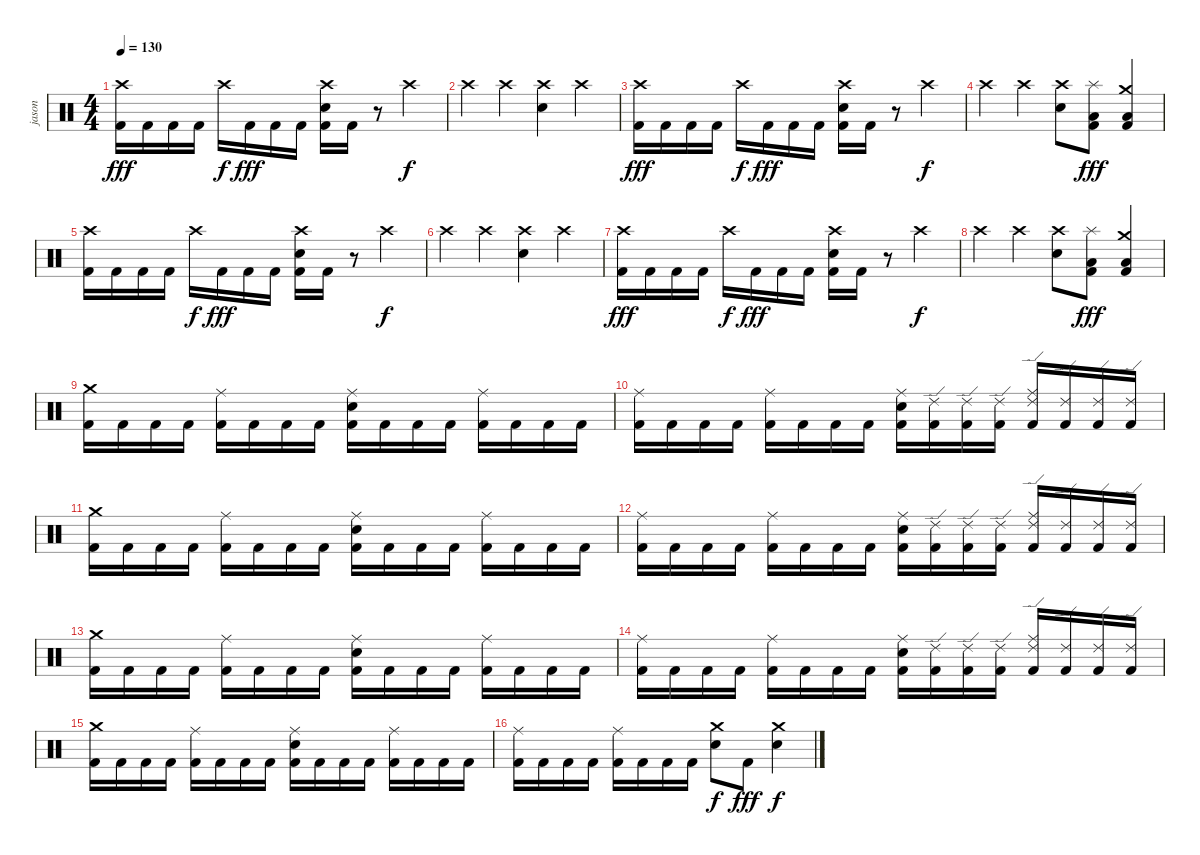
\track ("jason" "jason") {solo instrument percussion}
\staff {score}
\articulation defaults
\ts (4 4)
\tempo 130
\clef neutral
\ks c
("Crash high (hit)" "Kick (hit) 2").16{dy fff} "Kick (hit) 2".16 "Kick (hit) 2".16 "Kick (hit) 2".16 "Crash high (hit)".16{dy f} "Kick (hit) 2".16{dy fff} "Kick (hit) 2".16 "Kick (hit) 2".16 ("Crash high (hit)" "Snare (hit) 2" "Kick (hit) 2").16 "Kick (hit) 2".16 r.8 "Crash high (hit)".4{dy f} |
"Crash high (hit)".4 "Crash high (hit)".4 ("Crash high (hit)" "Snare (hit) 2").4 "Crash high (hit)".4 |
("Crash high (hit)" "Kick (hit) 2").16{dy fff} "Kick (hit) 2".16 "Kick (hit) 2".16 "Kick (hit) 2".16 "Crash high (hit)".16{dy f} "Kick (hit) 2".16{dy fff} "Kick (hit) 2".16 "Kick (hit) 2".16 ("Crash high (hit)" "Snare (hit) 2" "Kick (hit) 2").16 "Kick (hit) 2".16 r.8 "Crash high (hit)".4{dy f} |
"Crash high (hit)".4 "Crash high (hit)".4 ("Crash high (hit)" "Snare (hit) 2").8 ("Splash (hit)" "Low Tom (hit)" "Kick (hit) 2").8{dy fff} ("Crash medium (hit)" "Low Floor Tom (hit)" "Kick (hit) 2").4 |
("Crash high (hit)" "Kick (hit) 2").16 "Kick (hit) 2".16 "Kick (hit) 2".16 "Kick (hit) 2".16 "Crash high (hit)".16{dy f} "Kick (hit) 2".16{dy fff} "Kick (hit) 2".16 "Kick (hit) 2".16 ("Crash high (hit)" "Snare (hit) 2" "Kick (hit) 2").16 "Kick (hit) 2".16 r.8 "Crash high (hit)".4{dy f} |
"Crash high (hit)".4 "Crash high (hit)".4 ("Crash high (hit)" "Snare (hit) 2").4 "Crash high (hit)".4 |
("Crash high (hit)" "Kick (hit) 2").16{dy fff} "Kick (hit) 2".16 "Kick (hit) 2".16 "Kick (hit) 2".16 "Crash high (hit)".16{dy f} "Kick (hit) 2".16{dy fff} "Kick (hit) 2".16 "Kick (hit) 2".16 ("Crash high (hit)" "Snare (hit) 2" "Kick (hit) 2").16 "Kick (hit) 2".16 r.8 "Crash high (hit)".4{dy f} |
"Crash high (hit)".4 "Crash high (hit)".4 ("Crash high (hit)" "Snare (hit) 2").8 ("Splash (hit)" "Low Tom (hit)" "Kick (hit) 2").8{dy fff} ("Crash medium (hit)" "Low Floor Tom (hit)" "Kick (hit) 2").4 |
("Crash medium (hit)" "Kick (hit) 2").16 "Kick (hit) 2".16 "Kick (hit) 2".16 "Kick (hit) 2".16 ("Ride (middle)" "Kick (hit) 2").16 "Kick (hit) 2".16 "Kick (hit) 2".16 "Kick (hit) 2".16 ("Ride (middle)" "Snare (hit) 2" "Kick (hit) 2").16 "Kick (hit) 2".16 "Kick (hit) 2".16 "Kick (hit) 2".16 ("Ride (middle)" "Kick (hit) 2").16 "Kick (hit) 2".16 "Kick (hit) 2".16 "Kick (hit) 2".16 |
("Ride (middle)" "Kick (hit) 2").16 "Kick (hit) 2".16 "Kick (hit) 2".16 "Kick (hit) 2".16 ("Ride (middle)" "Kick (hit) 2").16 "Kick (hit) 2".16 "Kick (hit) 2".16 "Kick (hit) 2".16 ("Ride (middle)" "Snare (hit) 2" "Kick (hit) 2").16 ("Ride (edge) 2" "Kick (hit) 2").16 ("Ride (edge) 2" "Kick (hit) 2").16 ("Ride (edge) 2" "Kick (hit) 2").16 ("Ride (middle)" "Ride (edge) 2" "Kick (hit) 2").16 ("Ride (edge) 2" "Kick (hit) 2").16 ("Ride (edge) 2" "Kick (hit) 2").16 ("Ride (edge) 2" "Kick (hit) 2").16 |
("Crash medium (hit)" "Kick (hit) 2").16 "Kick (hit) 2".16 "Kick (hit) 2".16 "Kick (hit) 2".16 ("Ride (middle)" "Kick (hit) 2").16 "Kick (hit) 2".16 "Kick (hit) 2".16 "Kick (hit) 2".16 ("Ride (middle)" "Snare (hit) 2" "Kick (hit) 2").16 "Kick (hit) 2".16 "Kick (hit) 2".16 "Kick (hit) 2".16 ("Ride (middle)" "Kick (hit) 2").16 "Kick (hit) 2".16 "Kick (hit) 2".16 "Kick (hit) 2".16 |
("Ride (middle)" "Kick (hit) 2").16 "Kick (hit) 2".16 "Kick (hit) 2".16 "Kick (hit) 2".16 ("Ride (middle)" "Kick (hit) 2").16 "Kick (hit) 2".16 "Kick (hit) 2".16 "Kick (hit) 2".16 ("Ride (middle)" "Snare (hit) 2" "Kick (hit) 2").16 ("Ride (edge) 2" "Kick (hit) 2").16 ("Ride (edge) 2" "Kick (hit) 2").16 ("Ride (edge) 2" "Kick (hit) 2").16 ("Ride (middle)" "Ride (edge) 2" "Kick (hit) 2").16 ("Ride (edge) 2" "Kick (hit) 2").16 ("Ride (edge) 2" "Kick (hit) 2").16 ("Ride (edge) 2" "Kick (hit) 2").16 |
("Crash medium (hit)" "Kick (hit) 2").16 "Kick (hit) 2".16 "Kick (hit) 2".16 "Kick (hit) 2".16 ("Ride (middle)" "Kick (hit) 2").16 "Kick (hit) 2".16 "Kick (hit) 2".16 "Kick (hit) 2".16 ("Ride (middle)" "Snare (hit) 2" "Kick (hit) 2").16 "Kick (hit) 2".16 "Kick (hit) 2".16 "Kick (hit) 2".16 ("Ride (middle)" "Kick (hit) 2").16 "Kick (hit) 2".16 "Kick (hit) 2".16 "Kick (hit) 2".16 |
("Ride (middle)" "Kick (hit) 2").16 "Kick (hit) 2".16 "Kick (hit) 2".16 "Kick (hit) 2".16 ("Ride (middle)" "Kick (hit) 2").16 "Kick (hit) 2".16 "Kick (hit) 2".16 "Kick (hit) 2".16 ("Ride (middle)" "Snare (hit) 2" "Kick (hit) 2").16 ("Ride (edge) 2" "Kick (hit) 2").16 ("Ride (edge) 2" "Kick (hit) 2").16 ("Ride (edge) 2" "Kick (hit) 2").16 ("Ride (middle)" "Ride (edge) 2" "Kick (hit) 2").16 ("Ride (edge) 2" "Kick (hit) 2").16 ("Ride (edge) 2" "Kick (hit) 2").16 ("Ride (edge) 2" "Kick (hit) 2").16 |
("Crash medium (hit)" "Kick (hit) 2").16 "Kick (hit) 2".16 "Kick (hit) 2".16 "Kick (hit) 2".16 ("Ride (middle)" "Kick (hit) 2").16 "Kick (hit) 2".16 "Kick (hit) 2".16 "Kick (hit) 2".16 ("Ride (middle)" "Snare (hit) 2" "Kick (hit) 2").16 "Kick (hit) 2".16 "Kick (hit) 2".16 "Kick (hit) 2".16 ("Ride (middle)" "Kick (hit) 2").16 "Kick (hit) 2".16 "Kick (hit) 2".16 "Kick (hit) 2".16 |
("Ride (middle)" "Kick (hit) 2").16 "Kick (hit) 2".16 "Kick (hit) 2".16 "Kick (hit) 2".16 ("Ride (middle)" "Kick (hit) 2").16 "Kick (hit) 2".16 "Kick (hit) 2".16 "Kick (hit) 2".16 ("Crash medium (hit)" "Snare (hit) 2").8{dy f} "Kick (hit) 2".8{dy fff} ("Crash medium (hit)" "Snare (hit) 2").4{dy f}
